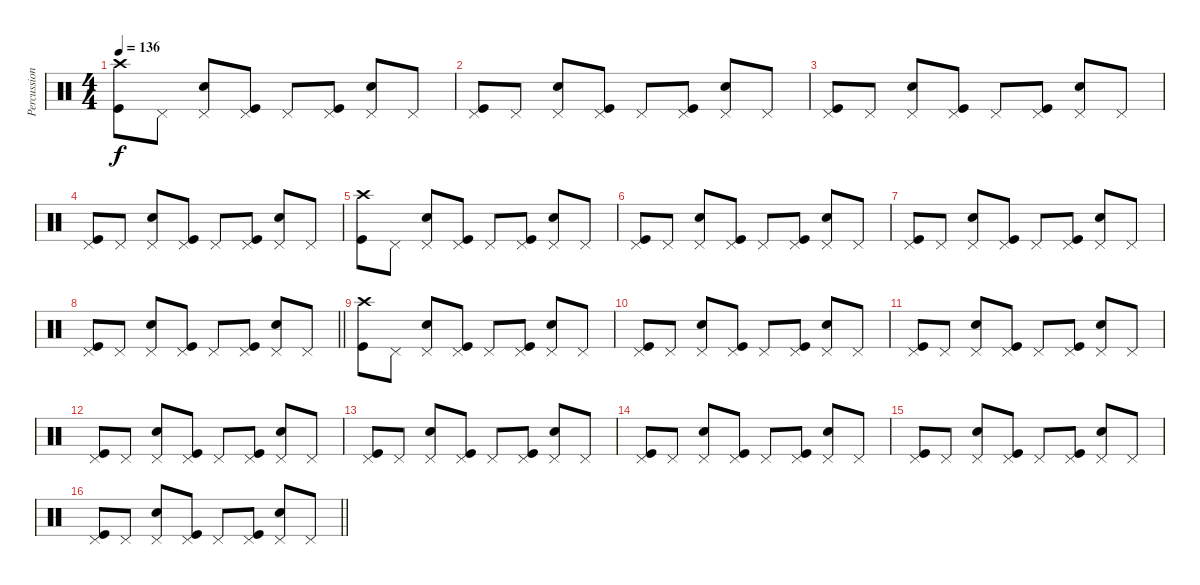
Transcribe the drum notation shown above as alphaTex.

\track ("Percussion" "Percussion") {instrument percussion}
\staff {score}
\articulation defaults
\ts (4 4)
\tempo 136
\clef neutral
\ks c
("Crash high (hit)" "Kick (hit)").8{dy f} "Pedal Hi-Hat (hit)".8 ("Pedal Hi-Hat (hit)" "Snare (hit) 2").8 ("Pedal Hi-Hat (hit)" "Kick (hit)").8 "Pedal Hi-Hat (hit)".8 ("Pedal Hi-Hat (hit)" "Kick (hit)").8 ("Pedal Hi-Hat (hit)" "Snare (hit) 2").8 "Pedal Hi-Hat (hit)".8 |
("Pedal Hi-Hat (hit)" "Kick (hit)").8 "Pedal Hi-Hat (hit)".8 ("Pedal Hi-Hat (hit)" "Snare (hit) 2").8 ("Pedal Hi-Hat (hit)" "Kick (hit)").8 "Pedal Hi-Hat (hit)".8 ("Pedal Hi-Hat (hit)" "Kick (hit)").8 ("Pedal Hi-Hat (hit)" "Snare (hit) 2").8 "Pedal Hi-Hat (hit)".8 |
("Pedal Hi-Hat (hit)" "Kick (hit)").8 "Pedal Hi-Hat (hit)".8 ("Pedal Hi-Hat (hit)" "Snare (hit) 2").8 ("Pedal Hi-Hat (hit)" "Kick (hit)").8 "Pedal Hi-Hat (hit)".8 ("Pedal Hi-Hat (hit)" "Kick (hit)").8 ("Pedal Hi-Hat (hit)" "Snare (hit) 2").8 "Pedal Hi-Hat (hit)".8 |
("Pedal Hi-Hat (hit)" "Kick (hit)").8 "Pedal Hi-Hat (hit)".8 ("Pedal Hi-Hat (hit)" "Snare (hit) 2").8 ("Pedal Hi-Hat (hit)" "Kick (hit)").8 "Pedal Hi-Hat (hit)".8 ("Pedal Hi-Hat (hit)" "Kick (hit)").8 ("Pedal Hi-Hat (hit)" "Snare (hit) 2").8 "Pedal Hi-Hat (hit)".8 |
("Crash high (hit)" "Kick (hit)").8 "Pedal Hi-Hat (hit)".8 ("Pedal Hi-Hat (hit)" "Snare (hit) 2").8 ("Pedal Hi-Hat (hit)" "Kick (hit)").8 "Pedal Hi-Hat (hit)".8 ("Pedal Hi-Hat (hit)" "Kick (hit)").8 ("Pedal Hi-Hat (hit)" "Snare (hit) 2").8 "Pedal Hi-Hat (hit)".8 |
("Pedal Hi-Hat (hit)" "Kick (hit)").8 "Pedal Hi-Hat (hit)".8 ("Pedal Hi-Hat (hit)" "Snare (hit) 2").8 ("Pedal Hi-Hat (hit)" "Kick (hit)").8 "Pedal Hi-Hat (hit)".8 ("Pedal Hi-Hat (hit)" "Kick (hit)").8 ("Pedal Hi-Hat (hit)" "Snare (hit) 2").8 "Pedal Hi-Hat (hit)".8 |
("Pedal Hi-Hat (hit)" "Kick (hit)").8 "Pedal Hi-Hat (hit)".8 ("Pedal Hi-Hat (hit)" "Snare (hit) 2").8 ("Pedal Hi-Hat (hit)" "Kick (hit)").8 "Pedal Hi-Hat (hit)".8 ("Pedal Hi-Hat (hit)" "Kick (hit)").8 ("Pedal Hi-Hat (hit)" "Snare (hit) 2").8 "Pedal Hi-Hat (hit)".8 |
\barLineRight lightlight
("Pedal Hi-Hat (hit)" "Kick (hit)").8 "Pedal Hi-Hat (hit)".8 ("Pedal Hi-Hat (hit)" "Snare (hit) 2").8 ("Pedal Hi-Hat (hit)" "Kick (hit)").8 "Pedal Hi-Hat (hit)".8 ("Pedal Hi-Hat (hit)" "Kick (hit)").8 ("Pedal Hi-Hat (hit)" "Snare (hit) 2").8 "Pedal Hi-Hat (hit)".8 |
("Crash high (hit)" "Kick (hit)").8 "Pedal Hi-Hat (hit)".8 ("Pedal Hi-Hat (hit)" "Snare (hit) 2").8 ("Pedal Hi-Hat (hit)" "Kick (hit)").8 "Pedal Hi-Hat (hit)".8 ("Pedal Hi-Hat (hit)" "Kick (hit)").8 ("Pedal Hi-Hat (hit)" "Snare (hit) 2").8 "Pedal Hi-Hat (hit)".8 |
("Pedal Hi-Hat (hit)" "Kick (hit)").8 "Pedal Hi-Hat (hit)".8 ("Pedal Hi-Hat (hit)" "Snare (hit) 2").8 ("Pedal Hi-Hat (hit)" "Kick (hit)").8 "Pedal Hi-Hat (hit)".8 ("Pedal Hi-Hat (hit)" "Kick (hit)").8 ("Pedal Hi-Hat (hit)" "Snare (hit) 2").8 "Pedal Hi-Hat (hit)".8 |
("Pedal Hi-Hat (hit)" "Kick (hit)").8 "Pedal Hi-Hat (hit)".8 ("Pedal Hi-Hat (hit)" "Snare (hit) 2").8 ("Pedal Hi-Hat (hit)" "Kick (hit)").8 "Pedal Hi-Hat (hit)".8 ("Pedal Hi-Hat (hit)" "Kick (hit)").8 ("Pedal Hi-Hat (hit)" "Snare (hit) 2").8 "Pedal Hi-Hat (hit)".8 |
("Pedal Hi-Hat (hit)" "Kick (hit)").8 "Pedal Hi-Hat (hit)".8 ("Pedal Hi-Hat (hit)" "Snare (hit) 2").8 ("Pedal Hi-Hat (hit)" "Kick (hit)").8 "Pedal Hi-Hat (hit)".8 ("Pedal Hi-Hat (hit)" "Kick (hit)").8 ("Pedal Hi-Hat (hit)" "Snare (hit) 2").8 "Pedal Hi-Hat (hit)".8 |
("Pedal Hi-Hat (hit)" "Kick (hit)").8 "Pedal Hi-Hat (hit)".8 ("Pedal Hi-Hat (hit)" "Snare (hit) 2").8 ("Pedal Hi-Hat (hit)" "Kick (hit)").8 "Pedal Hi-Hat (hit)".8 ("Pedal Hi-Hat (hit)" "Kick (hit)").8 ("Pedal Hi-Hat (hit)" "Snare (hit) 2").8 "Pedal Hi-Hat (hit)".8 |
("Pedal Hi-Hat (hit)" "Kick (hit)").8 "Pedal Hi-Hat (hit)".8 ("Pedal Hi-Hat (hit)" "Snare (hit) 2").8 ("Pedal Hi-Hat (hit)" "Kick (hit)").8 "Pedal Hi-Hat (hit)".8 ("Pedal Hi-Hat (hit)" "Kick (hit)").8 ("Pedal Hi-Hat (hit)" "Snare (hit) 2").8 "Pedal Hi-Hat (hit)".8 |
("Pedal Hi-Hat (hit)" "Kick (hit)").8 "Pedal Hi-Hat (hit)".8 ("Pedal Hi-Hat (hit)" "Snare (hit) 2").8 ("Pedal Hi-Hat (hit)" "Kick (hit)").8 "Pedal Hi-Hat (hit)".8 ("Pedal Hi-Hat (hit)" "Kick (hit)").8 ("Pedal Hi-Hat (hit)" "Snare (hit) 2").8 "Pedal Hi-Hat (hit)".8 |
\barLineRight lightlight
("Pedal Hi-Hat (hit)" "Kick (hit)").8 "Pedal Hi-Hat (hit)".8 ("Pedal Hi-Hat (hit)" "Snare (hit) 2").8 ("Pedal Hi-Hat (hit)" "Kick (hit)").8 "Pedal Hi-Hat (hit)".8 ("Pedal Hi-Hat (hit)" "Kick (hit)").8 ("Pedal Hi-Hat (hit)" "Snare (hit) 2").8 "Pedal Hi-Hat (hit)".8
